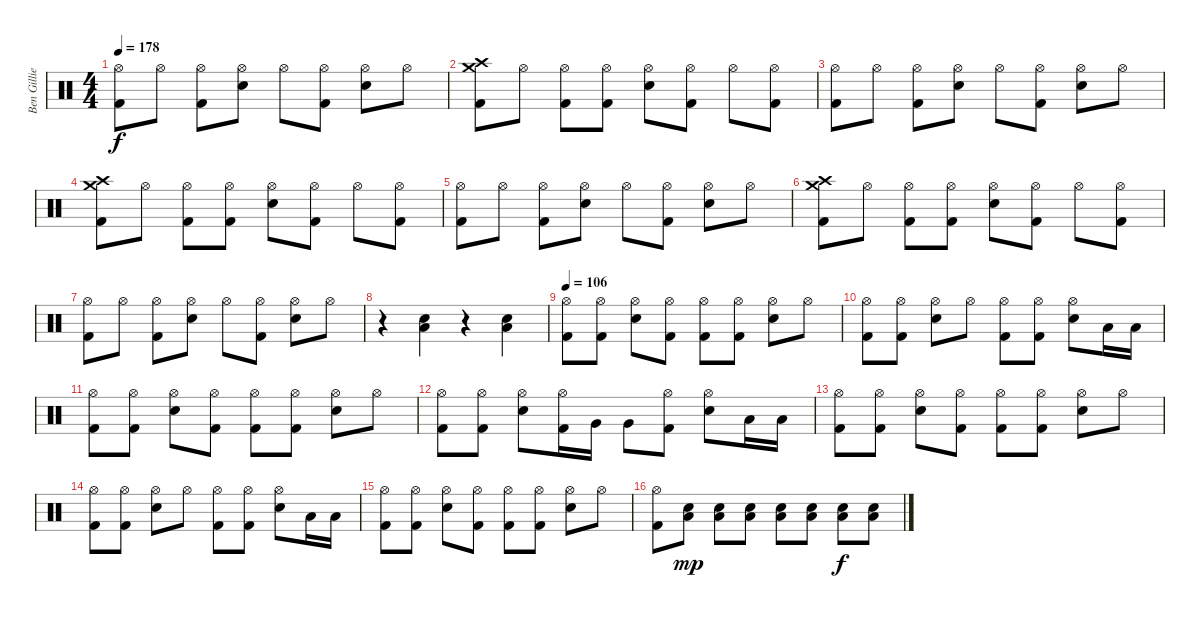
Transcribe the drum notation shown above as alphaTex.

\track ("Ben Gillies" "Ben Gillie") {instrument percussion}
\staff {score}
\articulation defaults
\ts (4 4)
\tempo 178
\clef neutral
\ks c
("Hi-Hat (open)" "Kick (hit) 2").8{dy f} "Hi-Hat (open)".8 ("Hi-Hat (open)" "Kick (hit) 2").8 ("Hi-Hat (open)" "Electric Snare (hit)").8 "Hi-Hat (open)".8 ("Hi-Hat (open)" "Kick (hit) 2").8 ("Hi-Hat (open)" "Electric Snare (hit)").8 "Hi-Hat (open)".8 |
("Crash high (hit)" "Crash medium (hit)" "Kick (hit) 2").8 "Hi-Hat (open)".8 ("Hi-Hat (open)" "Kick (hit) 2").8 ("Hi-Hat (open)" "Kick (hit) 2").8 ("Hi-Hat (open)" "Electric Snare (hit)").8 ("Hi-Hat (open)" "Kick (hit) 2").8 "Hi-Hat (open)".8 ("Hi-Hat (open)" "Kick (hit) 2").8 |
("Hi-Hat (open)" "Kick (hit) 2").8 "Hi-Hat (open)".8 ("Hi-Hat (open)" "Kick (hit) 2").8 ("Hi-Hat (open)" "Electric Snare (hit)").8 "Hi-Hat (open)".8 ("Hi-Hat (open)" "Kick (hit) 2").8 ("Hi-Hat (open)" "Electric Snare (hit)").8 "Hi-Hat (open)".8 |
("Crash high (hit)" "Crash medium (hit)" "Kick (hit) 2").8 "Hi-Hat (open)".8 ("Hi-Hat (open)" "Kick (hit) 2").8 ("Hi-Hat (open)" "Kick (hit) 2").8 ("Hi-Hat (open)" "Electric Snare (hit)").8 ("Hi-Hat (open)" "Kick (hit) 2").8 "Hi-Hat (open)".8 ("Hi-Hat (open)" "Kick (hit) 2").8 |
("Hi-Hat (open)" "Kick (hit) 2").8 "Hi-Hat (open)".8 ("Hi-Hat (open)" "Kick (hit) 2").8 ("Hi-Hat (open)" "Electric Snare (hit)").8 "Hi-Hat (open)".8 ("Hi-Hat (open)" "Kick (hit) 2").8 ("Hi-Hat (open)" "Electric Snare (hit)").8 "Hi-Hat (open)".8 |
("Crash high (hit)" "Crash medium (hit)" "Kick (hit) 2").8 "Hi-Hat (open)".8 ("Hi-Hat (open)" "Kick (hit) 2").8 ("Hi-Hat (open)" "Kick (hit) 2").8 ("Hi-Hat (open)" "Electric Snare (hit)").8 ("Hi-Hat (open)" "Kick (hit) 2").8 "Hi-Hat (open)".8 ("Hi-Hat (open)" "Kick (hit) 2").8 |
("Hi-Hat (open)" "Kick (hit) 2").8 "Hi-Hat (open)".8 ("Hi-Hat (open)" "Kick (hit) 2").8 ("Hi-Hat (open)" "Electric Snare (hit)").8 "Hi-Hat (open)".8 ("Hi-Hat (open)" "Kick (hit) 2").8 ("Hi-Hat (open)" "Electric Snare (hit)").8 "Hi-Hat (open)".8 |
r.4 ("Low Floor Tom (hit)" "Electric Snare (hit)").4 r.4 ("Low Floor Tom (hit)" "Electric Snare (hit)").4 |
\tempo 106
("Hi-Hat (open)" "Kick (hit) 2").8 ("Hi-Hat (open)" "Kick (hit) 2").8 ("Hi-Hat (open)" "Electric Snare (hit)").8 ("Hi-Hat (open)" "Kick (hit) 2").8 ("Hi-Hat (open)" "Kick (hit) 2").8 ("Hi-Hat (open)" "Kick (hit) 2").8 ("Hi-Hat (open)" "Electric Snare (hit)").8 "Hi-Hat (open)".8 |
("Hi-Hat (open)" "Kick (hit) 2").8 ("Hi-Hat (open)" "Kick (hit) 2").8 ("Hi-Hat (open)" "Electric Snare (hit)").8 "Hi-Hat (open)".8 ("Hi-Hat (open)" "Kick (hit) 2").8 ("Hi-Hat (open)" "Kick (hit) 2").8 ("Hi-Hat (open)" "Electric Snare (hit)").8 "Low Floor Tom (hit)".16 "Low Floor Tom (hit)".16 |
("Hi-Hat (open)" "Kick (hit) 2").8 ("Hi-Hat (open)" "Kick (hit) 2").8 ("Hi-Hat (open)" "Electric Snare (hit)").8 ("Hi-Hat (open)" "Kick (hit) 2").8 ("Hi-Hat (open)" "Kick (hit) 2").8 ("Hi-Hat (open)" "Kick (hit) 2").8 ("Hi-Hat (open)" "Electric Snare (hit)").8 "Hi-Hat (open)".8 |
("Hi-Hat (open)" "Kick (hit) 2").8 ("Hi-Hat (open)" "Kick (hit) 2").8 ("Hi-Hat (open)" "Electric Snare (hit)").8 ("Hi-Hat (open)" "Kick (hit) 2").16 "Very Low Tom (hit)".16 "Very Low Tom (hit)".8 ("Hi-Hat (open)" "Kick (hit) 2").8 ("Hi-Hat (open)" "Electric Snare (hit)").8 "Low Floor Tom (hit)".16 "Low Floor Tom (hit)".16 |
("Hi-Hat (open)" "Kick (hit) 2").8 ("Hi-Hat (open)" "Kick (hit) 2").8 ("Hi-Hat (open)" "Electric Snare (hit)").8 ("Hi-Hat (open)" "Kick (hit) 2").8 ("Hi-Hat (open)" "Kick (hit) 2").8 ("Hi-Hat (open)" "Kick (hit) 2").8 ("Hi-Hat (open)" "Electric Snare (hit)").8 "Hi-Hat (open)".8 |
("Hi-Hat (open)" "Kick (hit) 2").8 ("Hi-Hat (open)" "Kick (hit) 2").8 ("Hi-Hat (open)" "Electric Snare (hit)").8 "Hi-Hat (open)".8 ("Hi-Hat (open)" "Kick (hit) 2").8 ("Hi-Hat (open)" "Kick (hit) 2").8 ("Hi-Hat (open)" "Electric Snare (hit)").8 "Low Floor Tom (hit)".16 "Low Floor Tom (hit)".16 |
("Hi-Hat (open)" "Kick (hit) 2").8 ("Hi-Hat (open)" "Kick (hit) 2").8 ("Hi-Hat (open)" "Electric Snare (hit)").8 ("Hi-Hat (open)" "Kick (hit) 2").8 ("Hi-Hat (open)" "Kick (hit) 2").8 ("Hi-Hat (open)" "Kick (hit) 2").8 ("Hi-Hat (open)" "Electric Snare (hit)").8 "Hi-Hat (open)".8 |
("Hi-Hat (open)" "Kick (hit) 2").8 ("Low Floor Tom (hit)" "Electric Snare (hit)").8{dy mp} ("Low Floor Tom (hit)" "Electric Snare (hit)").8 ("Low Floor Tom (hit)" "Electric Snare (hit)").8 ("Low Floor Tom (hit)" "Electric Snare (hit)").8 ("Low Floor Tom (hit)" "Electric Snare (hit)").8 ("Low Floor Tom (hit)" "Electric Snare (hit)").8{dy f} ("Low Floor Tom (hit)" "Electric Snare (hit)").8
